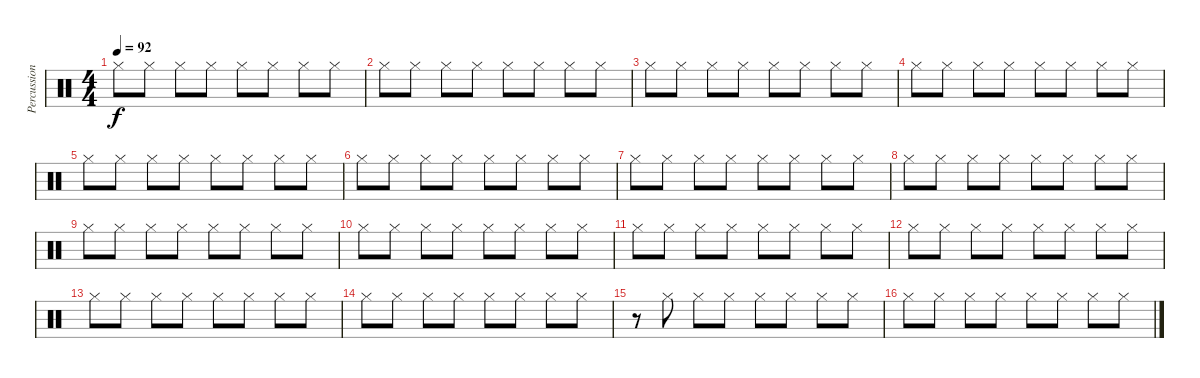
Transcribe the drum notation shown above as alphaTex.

\track ("Percussion" "Percussion") {instrument percussion}
\staff {score}
\articulation defaults
\ts (4 4)
\tempo 92
\clef neutral
\ks c "Hi-Hat (closed)".8{dy f} "Hi-Hat (closed)".8 "Hi-Hat (closed)".8 "Hi-Hat (closed)".8 "Hi-Hat (closed)".8 "Hi-Hat (closed)".8 "Hi-Hat (closed)".8 "Hi-Hat (closed)".8
|
"Hi-Hat (closed)".8 "Hi-Hat (closed)".8 "Hi-Hat (closed)".8 "Hi-Hat (closed)".8 "Hi-Hat (closed)".8 "Hi-Hat (closed)".8 "Hi-Hat (closed)".8 "Hi-Hat (closed)".8 |
"Hi-Hat (closed)".8 "Hi-Hat (closed)".8 "Hi-Hat (closed)".8 "Hi-Hat (closed)".8 "Hi-Hat (closed)".8 "Hi-Hat (closed)".8 "Hi-Hat (closed)".8 "Hi-Hat (closed)".8 |
"Hi-Hat (closed)".8 "Hi-Hat (closed)".8 "Hi-Hat (closed)".8 "Hi-Hat (closed)".8 "Hi-Hat (closed)".8 "Hi-Hat (closed)".8 "Hi-Hat (closed)".8 "Hi-Hat (closed)".8 |
"Hi-Hat (closed)".8 "Hi-Hat (closed)".8 "Hi-Hat (closed)".8 "Hi-Hat (closed)".8 "Hi-Hat (closed)".8 "Hi-Hat (closed)".8 "Hi-Hat (closed)".8 "Hi-Hat (closed)".8 |
"Hi-Hat (closed)".8 "Hi-Hat (closed)".8 "Hi-Hat (closed)".8 "Hi-Hat (closed)".8 "Hi-Hat (closed)".8 "Hi-Hat (closed)".8 "Hi-Hat (closed)".8 "Hi-Hat (closed)".8 |
"Hi-Hat (closed)".8 "Hi-Hat (closed)".8 "Hi-Hat (closed)".8 "Hi-Hat (closed)".8 "Hi-Hat (closed)".8 "Hi-Hat (closed)".8 "Hi-Hat (closed)".8 "Hi-Hat (closed)".8 |
"Hi-Hat (closed)".8 "Hi-Hat (closed)".8 "Hi-Hat (closed)".8 "Hi-Hat (closed)".8 "Hi-Hat (closed)".8 "Hi-Hat (closed)".8 "Hi-Hat (closed)".8 "Hi-Hat (closed)".8 |
"Hi-Hat (closed)".8 "Hi-Hat (closed)".8 "Hi-Hat (closed)".8 "Hi-Hat (closed)".8 "Hi-Hat (closed)".8 "Hi-Hat (closed)".8 "Hi-Hat (closed)".8 "Hi-Hat (closed)".8 |
"Hi-Hat (closed)".8 "Hi-Hat (closed)".8 "Hi-Hat (closed)".8 "Hi-Hat (closed)".8 "Hi-Hat (closed)".8 "Hi-Hat (closed)".8 "Hi-Hat (closed)".8 "Hi-Hat (closed)".8 |
"Hi-Hat (closed)".8 "Hi-Hat (closed)".8 "Hi-Hat (closed)".8 "Hi-Hat (closed)".8 "Hi-Hat (closed)".8 "Hi-Hat (closed)".8 "Hi-Hat (closed)".8 "Hi-Hat (closed)".8 |
"Hi-Hat (closed)".8 "Hi-Hat (closed)".8 "Hi-Hat (closed)".8 "Hi-Hat (closed)".8 "Hi-Hat (closed)".8 "Hi-Hat (closed)".8 "Hi-Hat (closed)".8 "Hi-Hat (closed)".8 |
"Hi-Hat (closed)".8 "Hi-Hat (closed)".8 "Hi-Hat (closed)".8 "Hi-Hat (closed)".8 "Hi-Hat (closed)".8 "Hi-Hat (closed)".8 "Hi-Hat (closed)".8 "Hi-Hat (closed)".8 |
"Hi-Hat (closed)".8 "Hi-Hat (closed)".8 "Hi-Hat (closed)".8 "Hi-Hat (closed)".8 "Hi-Hat (closed)".8 "Hi-Hat (closed)".8 "Hi-Hat (closed)".8 "Hi-Hat (closed)".8 |
r.8 "Hi-Hat (closed)".8 "Hi-Hat (closed)".8 "Hi-Hat (closed)".8 "Hi-Hat (closed)".8 "Hi-Hat (closed)".8 "Hi-Hat (closed)".8 "Hi-Hat (closed)".8 |
"Hi-Hat (closed)".8 "Hi-Hat (closed)".8 "Hi-Hat (closed)".8 "Hi-Hat (closed)".8 "Hi-Hat (closed)".8 "Hi-Hat (closed)".8 "Hi-Hat (closed)".8 "Hi-Hat (closed)".8
